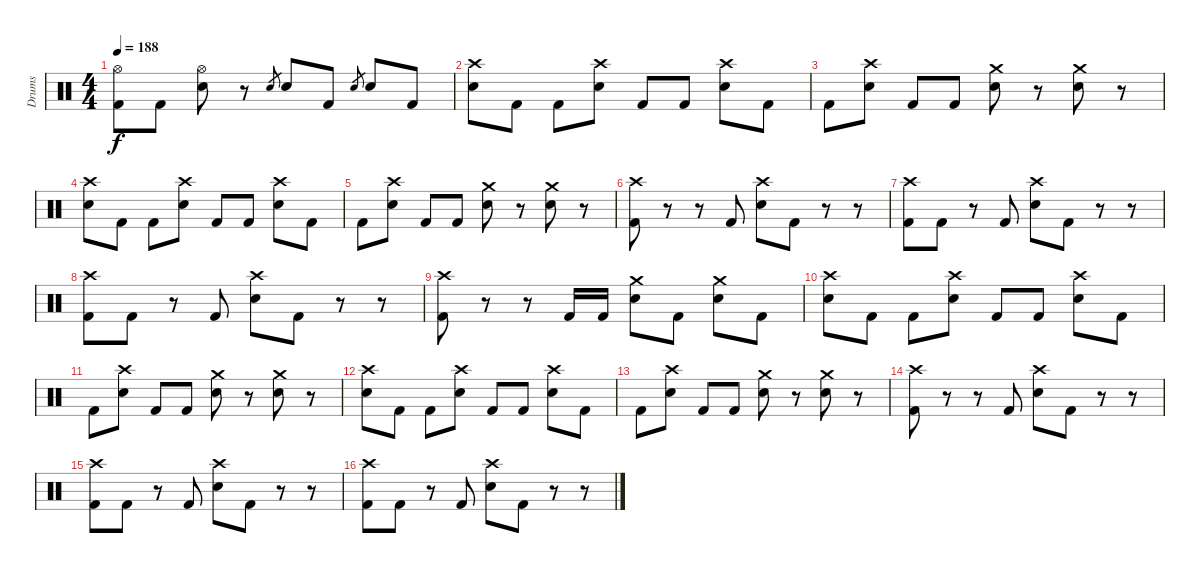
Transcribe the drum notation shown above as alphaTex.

\track ("Drums" "Drums") {instrument percussion}
\staff {score}
\articulation defaults
\ts (4 4)
\tempo 188
\clef neutral
\ks c
("Hi-Hat (open)" "Kick (hit) 2").8{dy f} "Kick (hit) 2".8 ("Hi-Hat (open)" "Electric Snare (hit)").8 r.8 "Electric Snare (hit)".8{gr} "Electric Snare (hit)".8 "Kick (hit) 2".8 "Electric Snare (hit)".8{gr} "Electric Snare (hit)".8 "Kick (hit) 2".8 |
("Crash high (hit)" "Electric Snare (hit)").8 "Kick (hit) 2".8 "Kick (hit) 2".8 ("Crash high (hit)" "Electric Snare (hit)").8 "Kick (hit) 2".8 "Kick (hit) 2".8 ("Crash high (hit)" "Electric Snare (hit)").8 "Kick (hit) 2".8 |
"Kick (hit) 2".8 ("Crash high (hit)" "Electric Snare (hit)").8 "Kick (hit) 2".8 "Kick (hit) 2".8 ("Crash medium (hit)" "Electric Snare (hit)").8 r.8 ("Crash medium (hit)" "Electric Snare (hit)").8 r.8 |
("Crash high (hit)" "Electric Snare (hit)").8 "Kick (hit) 2".8 "Kick (hit) 2".8 ("Crash high (hit)" "Electric Snare (hit)").8 "Kick (hit) 2".8 "Kick (hit) 2".8 ("Crash high (hit)" "Electric Snare (hit)").8 "Kick (hit) 2".8 |
"Kick (hit) 2".8 ("Crash high (hit)" "Electric Snare (hit)").8 "Kick (hit) 2".8 "Kick (hit) 2".8 ("Crash medium (hit)" "Electric Snare (hit)").8 r.8 ("Crash medium (hit)" "Electric Snare (hit)").8 r.8 |
("Crash high (hit)" "Kick (hit) 2").8 r.8 r.8 "Kick (hit) 2".8 ("Crash high (hit)" "Electric Snare (hit)").8 "Kick (hit) 2".8 r.8 r.8 |
("Crash high (hit)" "Kick (hit) 2").8 "Kick (hit) 2".8 r.8 "Kick (hit) 2".8 ("Crash high (hit)" "Electric Snare (hit)").8 "Kick (hit) 2".8 r.8 r.8 |
("Crash high (hit)" "Kick (hit) 2").8 "Kick (hit) 2".8 r.8 "Kick (hit) 2".8 ("Crash high (hit)" "Electric Snare (hit)").8 "Kick (hit) 2".8 r.8 r.8 |
("Crash high (hit)" "Kick (hit) 2").8 r.8 r.8 "Kick (hit) 2".16 "Kick (hit) 2".16 ("Crash medium (hit)" "Electric Snare (hit)").8 "Kick (hit) 2".8 ("Crash medium (hit)" "Electric Snare (hit)").8 "Kick (hit) 2".8 |
("Crash high (hit)" "Electric Snare (hit)").8 "Kick (hit) 2".8 "Kick (hit) 2".8 ("Crash high (hit)" "Electric Snare (hit)").8 "Kick (hit) 2".8 "Kick (hit) 2".8 ("Crash high (hit)" "Electric Snare (hit)").8 "Kick (hit) 2".8 |
"Kick (hit) 2".8 ("Crash high (hit)" "Electric Snare (hit)").8 "Kick (hit) 2".8 "Kick (hit) 2".8 ("Crash medium (hit)" "Electric Snare (hit)").8 r.8 ("Crash medium (hit)" "Electric Snare (hit)").8 r.8 |
("Crash high (hit)" "Electric Snare (hit)").8 "Kick (hit) 2".8 "Kick (hit) 2".8 ("Crash high (hit)" "Electric Snare (hit)").8 "Kick (hit) 2".8 "Kick (hit) 2".8 ("Crash high (hit)" "Electric Snare (hit)").8 "Kick (hit) 2".8 |
"Kick (hit) 2".8 ("Crash high (hit)" "Electric Snare (hit)").8 "Kick (hit) 2".8 "Kick (hit) 2".8 ("Crash medium (hit)" "Electric Snare (hit)").8 r.8 ("Crash medium (hit)" "Electric Snare (hit)").8 r.8 |
("Crash high (hit)" "Kick (hit) 2").8 r.8 r.8 "Kick (hit) 2".8 ("Crash high (hit)" "Electric Snare (hit)").8 "Kick (hit) 2".8 r.8 r.8 |
("Crash high (hit)" "Kick (hit) 2").8 "Kick (hit) 2".8 r.8 "Kick (hit) 2".8 ("Crash high (hit)" "Electric Snare (hit)").8 "Kick (hit) 2".8 r.8 r.8 |
("Crash high (hit)" "Kick (hit) 2").8 "Kick (hit) 2".8 r.8 "Kick (hit) 2".8 ("Crash high (hit)" "Electric Snare (hit)").8 "Kick (hit) 2".8 r.8 r.8
